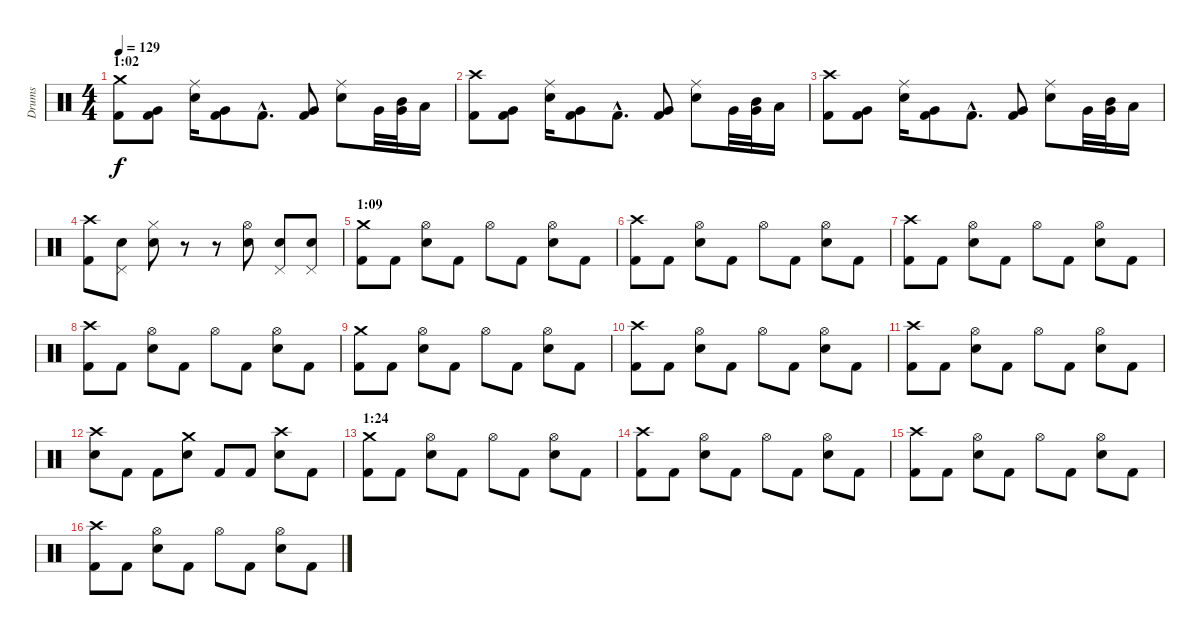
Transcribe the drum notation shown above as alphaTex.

\track ("Drums" "Drums") {instrument percussion}
\staff {score}
\articulation defaults
\ts (4 4)
\section ("" "1:02")
\tempo 129
\clef neutral
\ks c
("Crash medium (hit)" "Kick (hit) 2").8{dy f} ("Very Low Tom (hit)" "Kick (hit) 2").8 ("Ride (middle)" "Snare (hit) 2").16 ("Very Low Tom (hit)" "Kick (hit) 2").8 "Kick (hit) 2"{hac}.8{d} ("Very Low Tom (hit)" "Kick (hit) 2").8 ("Ride (middle)" "Snare (hit) 2").8 "Very Low Tom (hit)".32 ("Very Low Tom (hit)" "Mid Tom (hit)").32 "Low Tom (hit)".16 |
("Crash high (hit)" "Kick (hit) 2").8 ("Very Low Tom (hit)" "Kick (hit) 2").8 ("Ride (middle)" "Snare (hit) 2").16 ("Very Low Tom (hit)" "Kick (hit) 2").8 "Kick (hit) 2"{hac}.8{d} ("Very Low Tom (hit)" "Kick (hit) 2").8 ("Ride (middle)" "Snare (hit) 2").8 "Very Low Tom (hit)".32 ("Very Low Tom (hit)" "Mid Tom (hit)").32 "Low Tom (hit)".16 |
("Crash high (hit)" "Kick (hit) 2").8 ("Very Low Tom (hit)" "Kick (hit) 2").8 ("Ride (middle)" "Snare (hit) 2").16 ("Very Low Tom (hit)" "Kick (hit) 2").8 "Kick (hit) 2"{hac}.8{d} ("Very Low Tom (hit)" "Kick (hit) 2").8 ("Ride (middle)" "Snare (hit) 2").8 "Very Low Tom (hit)".32 ("Very Low Tom (hit)" "Mid Tom (hit)").32 "Low Tom (hit)".16 |
("Crash high (hit)" "Kick (hit) 2").8 ("Pedal Hi-Hat (hit)" "Snare (hit) 2").8 ("Hi-Hat (closed)" "Snare (hit) 2").8 r.8 r.8 ("Hi-Hat (open)" "Snare (hit) 2").8 ("Pedal Hi-Hat (hit)" "Snare (hit) 2").8 ("Pedal Hi-Hat (hit)" "Snare (hit) 2").8 |
\section ("" "1:09")
("Crash medium (hit)" "Kick (hit) 2").8 "Kick (hit) 2".8 ("Hi-Hat (open)" "Snare (hit) 2").8 "Kick (hit) 2".8 "Hi-Hat (open)".8 "Kick (hit) 2".8 ("Hi-Hat (open)" "Snare (hit) 2").8 "Kick (hit) 2".8 |
("Crash high (hit)" "Kick (hit) 2").8 "Kick (hit) 2".8 ("Hi-Hat (open)" "Snare (hit) 2").8 "Kick (hit) 2".8 "Hi-Hat (open)".8 "Kick (hit) 2".8 ("Hi-Hat (open)" "Snare (hit) 2").8 "Kick (hit) 2".8 |
("Crash high (hit)" "Kick (hit) 2").8 "Kick (hit) 2".8 ("Hi-Hat (open)" "Snare (hit) 2").8 "Kick (hit) 2".8 "Hi-Hat (open)".8 "Kick (hit) 2".8 ("Hi-Hat (open)" "Snare (hit) 2").8 "Kick (hit) 2".8 |
("Crash high (hit)" "Kick (hit) 2").8 "Kick (hit) 2".8 ("Hi-Hat (open)" "Snare (hit) 2").8 "Kick (hit) 2".8 "Hi-Hat (open)".8 "Kick (hit) 2".8 ("Hi-Hat (open)" "Snare (hit) 2").8 "Kick (hit) 2".8 |
("Crash medium (hit)" "Kick (hit) 2").8 "Kick (hit) 2".8 ("Hi-Hat (open)" "Snare (hit) 2").8 "Kick (hit) 2".8 "Hi-Hat (open)".8 "Kick (hit) 2".8 ("Hi-Hat (open)" "Snare (hit) 2").8 "Kick (hit) 2".8 |
("Crash high (hit)" "Kick (hit) 2").8 "Kick (hit) 2".8 ("Hi-Hat (open)" "Snare (hit) 2").8 "Kick (hit) 2".8 "Hi-Hat (open)".8 "Kick (hit) 2".8 ("Hi-Hat (open)" "Snare (hit) 2").8 "Kick (hit) 2".8 |
("Crash high (hit)" "Kick (hit) 2").8 "Kick (hit) 2".8 ("Hi-Hat (open)" "Snare (hit) 2").8 "Kick (hit) 2".8 "Hi-Hat (open)".8 "Kick (hit) 2".8 ("Hi-Hat (open)" "Snare (hit) 2").8 "Kick (hit) 2".8 |
("Crash high (hit)" "Snare (hit) 2").8 "Kick (hit) 2".8 "Kick (hit) 2".8 ("Crash medium (hit)" "Snare (hit) 2").8 "Kick (hit) 2".8 "Kick (hit) 2".8 ("Crash high (hit)" "Snare (hit) 2").8 "Kick (hit) 2".8 |
\section ("" "1:24")
("Crash medium (hit)" "Kick (hit) 2").8 "Kick (hit) 2".8 ("Hi-Hat (open)" "Snare (hit) 2").8 "Kick (hit) 2".8 "Hi-Hat (open)".8 "Kick (hit) 2".8 ("Hi-Hat (open)" "Snare (hit) 2").8 "Kick (hit) 2".8 |
("Crash high (hit)" "Kick (hit) 2").8 "Kick (hit) 2".8 ("Hi-Hat (open)" "Snare (hit) 2").8 "Kick (hit) 2".8 "Hi-Hat (open)".8 "Kick (hit) 2".8 ("Hi-Hat (open)" "Snare (hit) 2").8 "Kick (hit) 2".8 |
("Crash high (hit)" "Kick (hit) 2").8 "Kick (hit) 2".8 ("Hi-Hat (open)" "Snare (hit) 2").8 "Kick (hit) 2".8 "Hi-Hat (open)".8 "Kick (hit) 2".8 ("Hi-Hat (open)" "Snare (hit) 2").8 "Kick (hit) 2".8 |
("Crash high (hit)" "Kick (hit) 2").8 "Kick (hit) 2".8 ("Hi-Hat (open)" "Snare (hit) 2").8 "Kick (hit) 2".8 "Hi-Hat (open)".8 "Kick (hit) 2".8 ("Hi-Hat (open)" "Snare (hit) 2").8 "Kick (hit) 2".8
